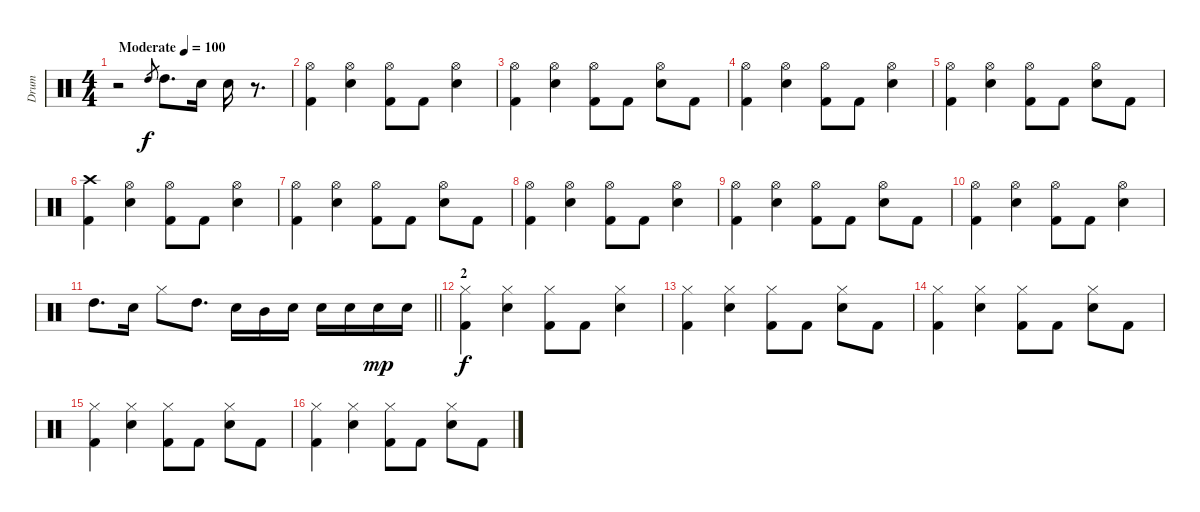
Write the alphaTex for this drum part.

\track ("Drum" "Drum") {instrument percussion}
\staff {score}
\articulation defaults
\ts (4 4)
\tempo (100 "Moderate")
\clef neutral
\ks c
r.2{dy f} "High Tom (hit)".8{gr} "High Tom (hit)".8{d} "Snare (hit) 2".16 "Snare (hit) 2".16 r.8{d} |
("Kick (hit) 2" "Hi-Hat (open)").4 ("Snare (hit) 2" "Hi-Hat (open)").4 ("Kick (hit) 2" "Hi-Hat (open)").8 "Kick (hit) 2".8 ("Snare (hit) 2" "Hi-Hat (open)").4 |
("Kick (hit) 2" "Hi-Hat (open)").4 ("Snare (hit) 2" "Hi-Hat (open)").4 ("Kick (hit) 2" "Hi-Hat (open)").8 "Kick (hit) 2".8 ("Snare (hit) 2" "Hi-Hat (open)").8 "Kick (hit) 2".8 |
("Kick (hit) 2" "Hi-Hat (open)").4 ("Snare (hit) 2" "Hi-Hat (open)").4 ("Kick (hit) 2" "Hi-Hat (open)").8 "Kick (hit) 2".8 ("Snare (hit) 2" "Hi-Hat (open)").4 |
("Kick (hit) 2" "Hi-Hat (open)").4 ("Snare (hit) 2" "Hi-Hat (open)").4 ("Kick (hit) 2" "Hi-Hat (open)").8 "Kick (hit) 2".8 ("Snare (hit) 2" "Hi-Hat (open)").8 "Kick (hit) 2".8 |
("Crash high (hit)" "Kick (hit) 2").4 ("Snare (hit) 2" "Hi-Hat (open)").4 ("Kick (hit) 2" "Hi-Hat (open)").8 "Kick (hit) 2".8 ("Snare (hit) 2" "Hi-Hat (open)").4 |
("Kick (hit) 2" "Hi-Hat (open)").4 ("Snare (hit) 2" "Hi-Hat (open)").4 ("Kick (hit) 2" "Hi-Hat (open)").8 "Kick (hit) 2".8 ("Snare (hit) 2" "Hi-Hat (open)").8 "Kick (hit) 2".8 |
("Kick (hit) 2" "Hi-Hat (open)").4 ("Snare (hit) 2" "Hi-Hat (open)").4 ("Kick (hit) 2" "Hi-Hat (open)").8 "Kick (hit) 2".8 ("Snare (hit) 2" "Hi-Hat (open)").4 |
("Kick (hit) 2" "Hi-Hat (open)").4 ("Snare (hit) 2" "Hi-Hat (open)").4 ("Kick (hit) 2" "Hi-Hat (open)").8 "Kick (hit) 2".8 ("Snare (hit) 2" "Hi-Hat (open)").8 "Kick (hit) 2".8 |
("Kick (hit) 2" "Hi-Hat (open)").4 ("Snare (hit) 2" "Hi-Hat (open)").4 ("Kick (hit) 2" "Hi-Hat (open)").8 "Kick (hit) 2".8 ("Snare (hit) 2" "Hi-Hat (open)").4 |
\barLineRight lightlight "High Tom (hit)".8{d} "Snare (hit) 2".16 "Hi-Hat (closed)".8 "High Tom (hit)".8{d} "Snare (hit) 2".16 "Mid Tom (hit)".16 "Snare (hit) 2".16 "Snare (hit) 2".16 "Snare (hit) 2".16 "Snare (hit) 2".16{dy mp} "Snare (hit) 2".16
|
\section ("" "2")
("Hi-Hat (closed)" "Kick (hit) 2").4{dy f} ("Hi-Hat (closed)" "Snare (hit) 2").4 ("Hi-Hat (closed)" "Kick (hit) 2").8 "Kick (hit) 2".8 ("Snare (hit) 2" "Hi-Hat (closed)").4 |
("Hi-Hat (closed)" "Kick (hit) 2").4 ("Hi-Hat (closed)" "Snare (hit) 2").4 ("Hi-Hat (closed)" "Kick (hit) 2").8 "Kick (hit) 2".8 ("Snare (hit) 2" "Hi-Hat (closed)").8 "Kick (hit) 2".8 |
("Hi-Hat (closed)" "Kick (hit) 2").4 ("Hi-Hat (closed)" "Snare (hit) 2").4 ("Hi-Hat (closed)" "Kick (hit) 2").8 "Kick (hit) 2".8 ("Snare (hit) 2" "Hi-Hat (closed)").8 "Kick (hit) 2".8 |
("Hi-Hat (closed)" "Kick (hit) 2").4 ("Hi-Hat (closed)" "Snare (hit) 2").4 ("Hi-Hat (closed)" "Kick (hit) 2").8 "Kick (hit) 2".8 ("Snare (hit) 2" "Hi-Hat (closed)").8 "Kick (hit) 2".8 |
("Hi-Hat (closed)" "Kick (hit) 2").4 ("Hi-Hat (closed)" "Snare (hit) 2").4 ("Hi-Hat (closed)" "Kick (hit) 2").8 "Kick (hit) 2".8 ("Snare (hit) 2" "Hi-Hat (closed)").8 "Kick (hit) 2".8
